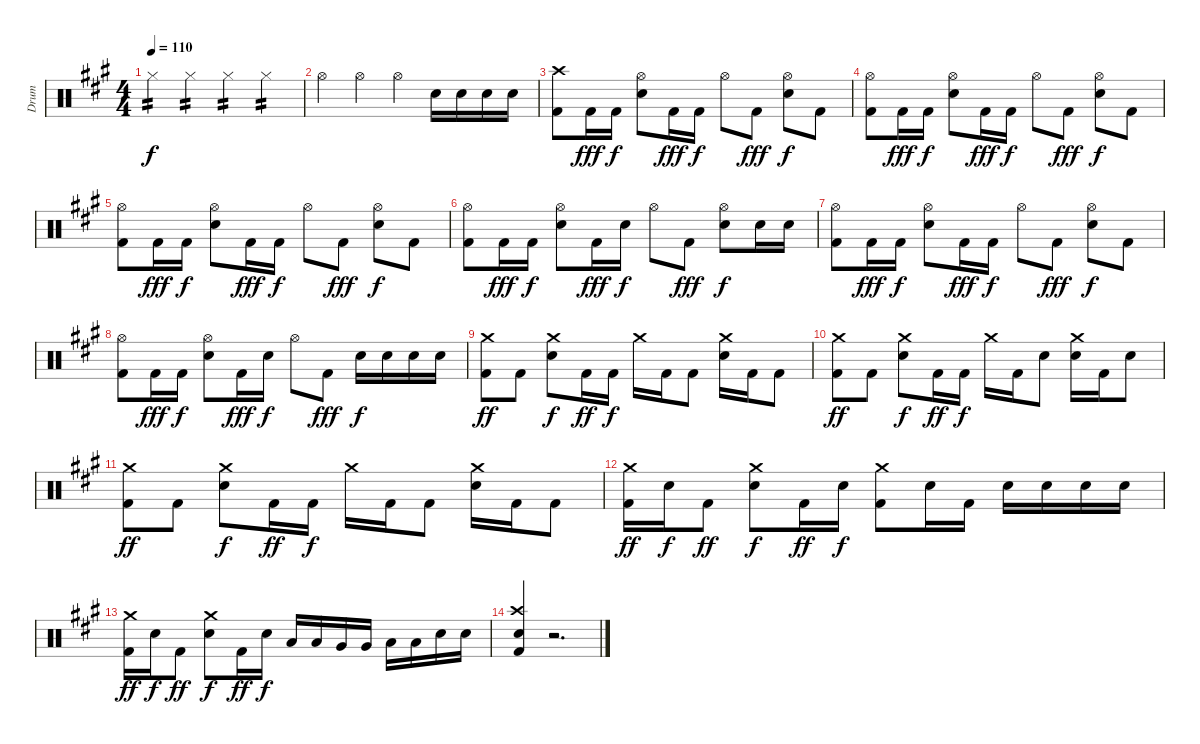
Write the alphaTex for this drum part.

\track ("Drum" "Drum") {instrument percussion}
\staff {score}
\articulation defaults
\ts (4 4)
\tempo 110
\clef neutral
\ks a "Hi-Hat (closed)".4{tp 2 dy f} "Hi-Hat (closed)".4{tp 2} "Hi-Hat (closed)".4{tp 2} "Hi-Hat (closed)".4{tp 2}
|
"Hi-Hat (open)".4 "Hi-Hat (open)".4 "Hi-Hat (open)".4 "Electric Snare (hit)".16 "Electric Snare (hit)".16 "Electric Snare (hit)".16 "Electric Snare (hit)".16 |
("Crash high (hit)" "Kick (hit) 2").8 "Kick (hit) 2".16{dy fff} "Kick (hit) 2".16{dy f} ("Hi-Hat (open)" "Electric Snare (hit)").8 "Kick (hit) 2".16{dy fff} "Kick (hit) 2".16{dy f} "Hi-Hat (open)".8 "Kick (hit) 2".8{dy fff} ("Hi-Hat (open)" "Electric Snare (hit)").8{dy f} "Kick (hit) 2".8 |
("Hi-Hat (open)" "Kick (hit) 2").8 "Kick (hit) 2".16{dy fff} "Kick (hit) 2".16{dy f} ("Hi-Hat (open)" "Electric Snare (hit)").8 "Kick (hit) 2".16{dy fff} "Kick (hit) 2".16{dy f} "Hi-Hat (open)".8 "Kick (hit) 2".8{dy fff} ("Hi-Hat (open)" "Electric Snare (hit)").8{dy f} "Kick (hit) 2".8 |
("Hi-Hat (open)" "Kick (hit) 2").8 "Kick (hit) 2".16{dy fff} "Kick (hit) 2".16{dy f} ("Hi-Hat (open)" "Electric Snare (hit)").8 "Kick (hit) 2".16{dy fff} "Kick (hit) 2".16{dy f} "Hi-Hat (open)".8 "Kick (hit) 2".8{dy fff} ("Hi-Hat (open)" "Electric Snare (hit)").8{dy f} "Kick (hit) 2".8 |
("Hi-Hat (open)" "Kick (hit) 2").8 "Kick (hit) 2".16{dy fff} "Kick (hit) 2".16{dy f} ("Hi-Hat (open)" "Electric Snare (hit)").8 "Kick (hit) 2".16{dy fff} "Electric Snare (hit)".16{dy f} "Hi-Hat (open)".8 "Kick (hit) 2".8{dy fff} ("Hi-Hat (open)" "Electric Snare (hit)").8{dy f} "Electric Snare (hit)".16 "Electric Snare (hit)".16 |
("Hi-Hat (open)" "Kick (hit) 2").8 "Kick (hit) 2".16{dy fff} "Kick (hit) 2".16{dy f} ("Hi-Hat (open)" "Electric Snare (hit)").8 "Kick (hit) 2".16{dy fff} "Kick (hit) 2".16{dy f} "Hi-Hat (open)".8 "Kick (hit) 2".8{dy fff} ("Hi-Hat (open)" "Electric Snare (hit)").8{dy f} "Kick (hit) 2".8 |
("Hi-Hat (open)" "Kick (hit) 2").8 "Kick (hit) 2".16{dy fff} "Kick (hit) 2".16{dy f} ("Hi-Hat (open)" "Electric Snare (hit)").8 "Kick (hit) 2".16{dy fff} "Electric Snare (hit)".16{dy f} "Hi-Hat (open)".8 "Kick (hit) 2".8{dy fff} "Electric Snare (hit)".16{dy f} "Electric Snare (hit)".16 "Electric Snare (hit)".16 "Electric Snare (hit)".16 |
("Crash medium (hit)" "Kick (hit) 2").8{dy ff} "Kick (hit) 2".8 ("Crash medium (hit)" "Electric Snare (hit)").8{dy f} "Kick (hit) 2".16{dy ff} "Kick (hit) 2".16{dy f} "Crash medium (hit)".16 "Kick (hit) 2".16 "Kick (hit) 2".8 ("Crash medium (hit)" "Electric Snare (hit)").16 "Kick (hit) 2".16 "Kick (hit) 2".8 |
("Crash medium (hit)" "Kick (hit) 2").8{dy ff} "Kick (hit) 2".8 ("Crash medium (hit)" "Electric Snare (hit)").8{dy f} "Kick (hit) 2".16{dy ff} "Kick (hit) 2".16{dy f} "Crash medium (hit)".16 "Kick (hit) 2".16 "Electric Snare (hit)".8 ("Crash medium (hit)" "Electric Snare (hit)").16 "Kick (hit) 2".16 "Electric Snare (hit)".8 |
("Crash medium (hit)" "Kick (hit) 2").8{dy ff} "Kick (hit) 2".8 ("Crash medium (hit)" "Electric Snare (hit)").8{dy f} "Kick (hit) 2".16{dy ff} "Kick (hit) 2".16{dy f} "Crash medium (hit)".16 "Kick (hit) 2".16 "Kick (hit) 2".8 ("Crash medium (hit)" "Electric Snare (hit)").16 "Kick (hit) 2".16 "Kick (hit) 2".8 |
("Crash medium (hit)" "Kick (hit) 2").16{dy ff} "Electric Snare (hit)".16{dy f} "Kick (hit) 2".8{dy ff} ("Crash medium (hit)" "Electric Snare (hit)").8{dy f} "Kick (hit) 2".16{dy ff} "Electric Snare (hit)".16{dy f} ("Crash medium (hit)" "Kick (hit) 2").8 "Electric Snare (hit)".16 "Kick (hit) 2".16 "Electric Snare (hit)".16 "Electric Snare (hit)".16 "Electric Snare (hit)".16 "Electric Snare (hit)".16 |
("Crash medium (hit)" "Kick (hit) 2").16{dy ff} "Electric Snare (hit)".16{dy f} "Kick (hit) 2".8{dy ff} ("Crash medium (hit)" "Electric Snare (hit)").8{dy f} "Kick (hit) 2".16{dy ff} "Electric Snare (hit)".16{dy f} "Low Tom (hit)".16 "Low Tom (hit)".16 "Very Low Tom (hit)".16 "Very Low Tom (hit)".16 "Low Floor Tom (hit)".16 "Low Floor Tom (hit)".16 "Electric Snare (hit)".16 "Electric Snare (hit)".16 |
("Crash high (hit)" "Electric Snare (hit)" "Kick (hit) 2").4 r.2{d}
